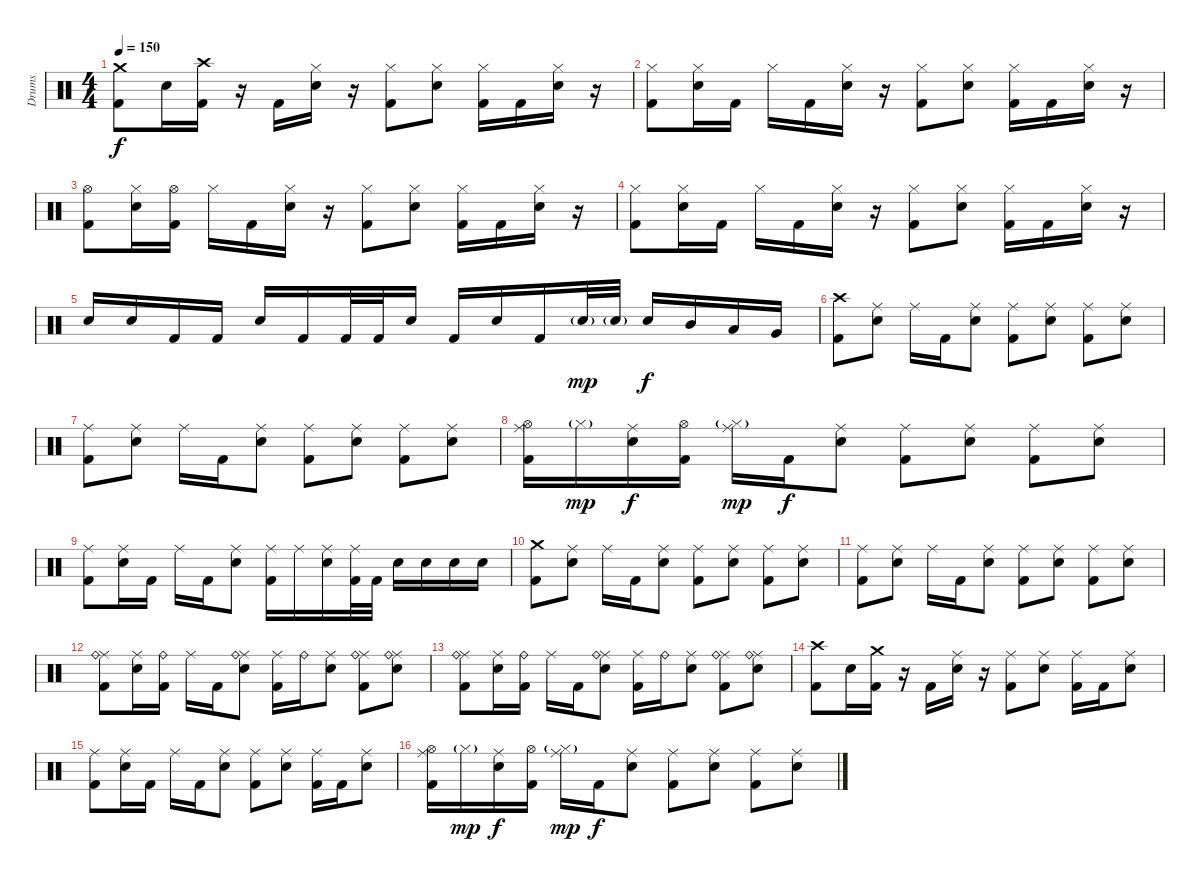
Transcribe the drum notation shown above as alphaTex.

\track ("Drums" "Drums") {instrument percussion}
\staff {score}
\articulation defaults
\ts (4 4)
\tempo 150
\clef neutral
\ks c
("Crash medium (hit)" "Kick (hit) 2").8{dy f} "Snare (hit) 2".16 ("Crash high (hit)" "Kick (hit) 2").16 r.16 "Kick (hit) 2".16 ("Hi-Hat (closed)" "Snare (hit) 2").16 r.16 ("Hi-Hat (closed)" "Kick (hit) 2").8 ("Hi-Hat (closed)" "Snare (hit) 2").8 ("Hi-Hat (closed)" "Kick (hit) 2").16 "Kick (hit) 2".16 ("Hi-Hat (closed)" "Snare (hit) 2").16 r.16 |
("Hi-Hat (closed)" "Kick (hit) 2").8 ("Hi-Hat (closed)" "Snare (hit) 2").16 "Kick (hit) 2".16 "Hi-Hat (closed)".16 "Kick (hit) 2".16 ("Hi-Hat (closed)" "Snare (hit) 2").16 r.16 ("Hi-Hat (closed)" "Kick (hit) 2").8 ("Hi-Hat (closed)" "Snare (hit) 2").8 ("Hi-Hat (closed)" "Kick (hit) 2").16 "Kick (hit) 2".16 ("Hi-Hat (closed)" "Snare (hit) 2").16 r.16 |
("Hi-Hat (open)" "Kick (hit) 2").8 ("Hi-Hat (closed)" "Snare (hit) 2").16 ("Hi-Hat (open)" "Kick (hit) 2").16 "Hi-Hat (closed)".16 "Kick (hit) 2".16 ("Hi-Hat (closed)" "Snare (hit) 2").16 r.16 ("Hi-Hat (closed)" "Kick (hit) 2").8 ("Hi-Hat (closed)" "Snare (hit) 2").8 ("Hi-Hat (closed)" "Kick (hit) 2").16 "Kick (hit) 2".16 ("Hi-Hat (closed)" "Snare (hit) 2").16 r.16 |
("Hi-Hat (closed)" "Kick (hit) 2").8 ("Hi-Hat (closed)" "Snare (hit) 2").16 "Kick (hit) 2".16 "Hi-Hat (closed)".16 "Kick (hit) 2".16 ("Hi-Hat (closed)" "Snare (hit) 2").16 r.16 ("Hi-Hat (closed)" "Kick (hit) 2").8 ("Hi-Hat (closed)" "Snare (hit) 2").8 ("Hi-Hat (closed)" "Kick (hit) 2").16 "Kick (hit) 2".16 ("Hi-Hat (closed)" "Snare (hit) 2").16 r.16 |
"Snare (hit) 2".16 "Snare (hit) 2".16 "Kick (hit) 2".16 "Kick (hit) 2".16 "Snare (hit) 2".16 "Kick (hit) 2".16 "Kick (hit) 2".32 "Kick (hit) 2".32 "Snare (hit) 2".16 "Kick (hit) 2".16 "Snare (hit) 2".16 "Kick (hit) 2".16 "Snare (hit) 2"{g}.32{dy mp} "Snare (hit) 2"{g}.32 "Snare (hit) 2".16{dy f} "Mid Tom (hit)".16 "Low Tom (hit)".16 "Very Low Tom (hit)".16 |
("Crash high (hit)" "Kick (hit) 2").8 ("Ride (middle)" "Snare (hit) 2").8 "Ride (middle)".16 "Kick (hit) 2".16 ("Ride (middle)" "Snare (hit) 2").8 ("Ride (middle)" "Kick (hit) 2").8 ("Ride (middle)" "Snare (hit) 2").8 ("Ride (middle)" "Kick (hit) 2").8 ("Ride (middle)" "Snare (hit) 2").8 |
("Ride (middle)" "Kick (hit) 2").8 ("Ride (middle)" "Snare (hit) 2").8 "Ride (middle)".16 "Kick (hit) 2".16 ("Ride (middle)" "Snare (hit) 2").8 ("Ride (middle)" "Kick (hit) 2").8 ("Ride (middle)" "Snare (hit) 2").8 ("Ride (middle)" "Kick (hit) 2").8 ("Ride (middle)" "Snare (hit) 2").8 |
("Ride (middle)" "Hi-Hat (open)" "Kick (hit) 2").16 "Hi-Hat (closed)"{g}.16{dy mp} ("Ride (middle)" "Snare (hit) 2").16{dy f} ("Hi-Hat (open)" "Kick (hit) 2").16 ("Ride (middle)" "Hi-Hat (closed)"{g}).16{dy mp} "Kick (hit) 2".16{dy f} ("Ride (middle)" "Snare (hit) 2").8 ("Ride (middle)" "Kick (hit) 2").8 ("Ride (middle)" "Snare (hit) 2").8 ("Ride (middle)" "Kick (hit) 2").8 ("Ride (middle)" "Snare (hit) 2").8 |
("Ride (middle)" "Kick (hit) 2").8 ("Ride (middle)" "Snare (hit) 2").16 "Kick (hit) 2".16 "Ride (middle)".16 "Kick (hit) 2".16 ("Ride (middle)" "Snare (hit) 2").8 ("Ride (middle)" "Kick (hit) 2").16 "Ride (middle)".16 ("Ride (middle)" "Snare (hit) 2").16 ("Ride (middle)" "Kick (hit) 2").32 "Kick (hit) 2".32 "Snare (hit) 2".16 "Snare (hit) 2".16 "Snare (hit) 2".16 "Snare (hit) 2".16 |
("Crash medium (hit)" "Kick (hit) 2").8 ("Ride (middle)" "Snare (hit) 2").8 "Ride (middle)".16 "Kick (hit) 2".16 ("Ride (middle)" "Snare (hit) 2").8 ("Ride (middle)" "Kick (hit) 2").8 ("Ride (middle)" "Snare (hit) 2").8 ("Ride (middle)" "Kick (hit) 2").8 ("Ride (middle)" "Snare (hit) 2").8 |
("Ride (middle)" "Kick (hit) 2").8 ("Ride (middle)" "Snare (hit) 2").8 "Ride (middle)".16 "Kick (hit) 2".16 ("Ride (middle)" "Snare (hit) 2").8 ("Ride (middle)" "Kick (hit) 2").8 ("Ride (middle)" "Snare (hit) 2").8 ("Ride (middle)" "Kick (hit) 2").8 ("Ride (middle)" "Snare (hit) 2").8 |
("Ride (middle)" "Ride (bell)" "Kick (hit) 2").8 ("Ride (middle)" "Snare (hit) 2").16 ("Ride (bell)" "Kick (hit) 2").16 "Ride (middle)".16 "Kick (hit) 2".16 ("Ride (middle)" "Ride (bell)" "Snare (hit) 2").8 ("Ride (middle)" "Kick (hit) 2").16 "Ride (bell)".16 ("Ride (middle)" "Snare (hit) 2").8 ("Ride (middle)" "Ride (bell)" "Kick (hit) 2").8 ("Ride (middle)" "Ride (bell)" "Snare (hit) 2").8 |
("Ride (middle)" "Ride (bell)" "Kick (hit) 2").8 ("Ride (middle)" "Snare (hit) 2").16 ("Ride (bell)" "Kick (hit) 2").16 "Ride (middle)".16 "Kick (hit) 2".16 ("Ride (middle)" "Ride (bell)" "Snare (hit) 2").8 ("Ride (middle)" "Kick (hit) 2").16 "Ride (bell)".16 ("Ride (middle)" "Snare (hit) 2").8 ("Ride (middle)" "Ride (bell)" "Kick (hit) 2").8 ("Ride (middle)" "Ride (bell)" "Snare (hit) 2").8 |
("Crash high (hit)" "Kick (hit) 2").8 "Snare (hit) 2".16 ("Crash medium (hit)" "Kick (hit) 2").16 r.16 "Kick (hit) 2".16 ("Ride (middle)" "Snare (hit) 2").16 r.16 ("Ride (middle)" "Kick (hit) 2").8 ("Ride (middle)" "Snare (hit) 2").8 ("Ride (middle)" "Kick (hit) 2").16 "Kick (hit) 2".16 ("Ride (middle)" "Snare (hit) 2").8 |
("Ride (middle)" "Kick (hit) 2").8 ("Ride (middle)" "Snare (hit) 2").16 "Kick (hit) 2".16 "Ride (middle)".16 "Kick (hit) 2".16 ("Ride (middle)" "Snare (hit) 2").8 ("Ride (middle)" "Kick (hit) 2").8 ("Ride (middle)" "Snare (hit) 2").8 ("Ride (middle)" "Kick (hit) 2").16 "Kick (hit) 2".16 ("Ride (middle)" "Snare (hit) 2").8 |
("Ride (middle)" "Hi-Hat (open)" "Kick (hit) 2").16 "Hi-Hat (closed)"{g}.16{dy mp} ("Ride (middle)" "Snare (hit) 2").16{dy f} ("Hi-Hat (open)" "Kick (hit) 2").16 ("Ride (middle)" "Hi-Hat (closed)"{g}).16{dy mp} "Kick (hit) 2".16{dy f} ("Ride (middle)" "Snare (hit) 2").8 ("Ride (middle)" "Kick (hit) 2").8 ("Ride (middle)" "Snare (hit) 2").8 ("Ride (middle)" "Kick (hit) 2").8 ("Ride (middle)" "Snare (hit) 2").8
